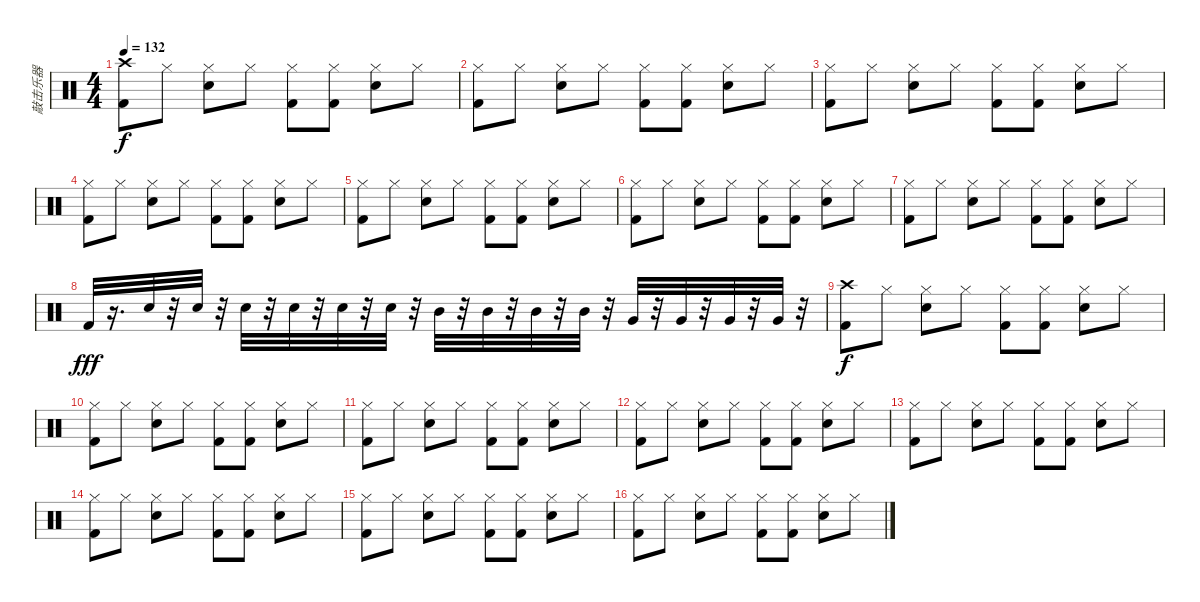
\track ("敲击乐器" "敲击乐器") {instrument percussion}
\staff {score}
\articulation defaults
\ts (4 4)
\tempo 132
\clef neutral
\ks c
("Crash high (hit)" "Kick (hit) 2").8{dy f} "Hi-Hat (closed)".8 ("Hi-Hat (closed)" "Snare (hit) 2").8 "Hi-Hat (closed)".8 ("Hi-Hat (closed)" "Kick (hit) 2").8 ("Hi-Hat (closed)" "Kick (hit) 2").8 ("Hi-Hat (closed)" "Snare (hit) 2").8 "Hi-Hat (closed)".8 |
("Hi-Hat (closed)" "Kick (hit) 2").8 "Hi-Hat (closed)".8 ("Hi-Hat (closed)" "Snare (hit) 2").8 "Hi-Hat (closed)".8 ("Hi-Hat (closed)" "Kick (hit) 2").8 ("Hi-Hat (closed)" "Kick (hit) 2").8 ("Hi-Hat (closed)" "Snare (hit) 2").8 "Hi-Hat (closed)".8 |
("Hi-Hat (closed)" "Kick (hit) 2").8 "Hi-Hat (closed)".8 ("Hi-Hat (closed)" "Snare (hit) 2").8 "Hi-Hat (closed)".8 ("Hi-Hat (closed)" "Kick (hit) 2").8 ("Hi-Hat (closed)" "Kick (hit) 2").8 ("Hi-Hat (closed)" "Snare (hit) 2").8 "Hi-Hat (closed)".8 |
("Hi-Hat (closed)" "Kick (hit) 2").8 "Hi-Hat (closed)".8 ("Hi-Hat (closed)" "Snare (hit) 2").8 "Hi-Hat (closed)".8 ("Hi-Hat (closed)" "Kick (hit) 2").8 ("Hi-Hat (closed)" "Kick (hit) 2").8 ("Hi-Hat (closed)" "Snare (hit) 2").8 "Hi-Hat (closed)".8 |
("Hi-Hat (closed)" "Kick (hit) 2").8 "Hi-Hat (closed)".8 ("Hi-Hat (closed)" "Snare (hit) 2").8 "Hi-Hat (closed)".8 ("Hi-Hat (closed)" "Kick (hit) 2").8 ("Hi-Hat (closed)" "Kick (hit) 2").8 ("Hi-Hat (closed)" "Snare (hit) 2").8 "Hi-Hat (closed)".8 |
("Hi-Hat (closed)" "Kick (hit) 2").8 "Hi-Hat (closed)".8 ("Hi-Hat (closed)" "Snare (hit) 2").8 "Hi-Hat (closed)".8 ("Hi-Hat (closed)" "Kick (hit) 2").8 ("Hi-Hat (closed)" "Kick (hit) 2").8 ("Hi-Hat (closed)" "Snare (hit) 2").8 "Hi-Hat (closed)".8 |
("Hi-Hat (closed)" "Kick (hit) 2").8 "Hi-Hat (closed)".8 ("Hi-Hat (closed)" "Snare (hit) 2").8 "Hi-Hat (closed)".8 ("Hi-Hat (closed)" "Kick (hit) 2").8 ("Hi-Hat (closed)" "Kick (hit) 2").8 ("Hi-Hat (closed)" "Snare (hit) 2").8 "Hi-Hat (closed)".8 |
"Kick (hit) 2".32{dy fff} r.16{d} "Snare (hit) 2".32 r.32 "Electric Snare (hit)".32 r.32 "Snare (hit) 2".32 r.32 "Electric Snare (hit)".32 r.32 "Snare (hit) 2".32 r.32 "Electric Snare (hit)".32 r.32 "Mid Tom (hit)".32 r.32 "Mid Tom (hit)".32 r.32 "Mid Tom (hit)".32 r.32 "Mid Tom (hit)".32 r.32 "Very Low Tom (hit)".32 r.32 "Very Low Tom (hit)".32 r.32 "Very Low Tom (hit)".32 r.32 "Very Low Tom (hit)".32 r.32 |
("Crash high (hit)" "Kick (hit) 2").8{dy f} "Hi-Hat (closed)".8 ("Hi-Hat (closed)" "Snare (hit) 2").8 "Hi-Hat (closed)".8 ("Hi-Hat (closed)" "Kick (hit) 2").8 ("Hi-Hat (closed)" "Kick (hit) 2").8 ("Hi-Hat (closed)" "Snare (hit) 2").8 "Hi-Hat (closed)".8 |
("Hi-Hat (closed)" "Kick (hit) 2").8 "Hi-Hat (closed)".8 ("Hi-Hat (closed)" "Snare (hit) 2").8 "Hi-Hat (closed)".8 ("Hi-Hat (closed)" "Kick (hit) 2").8 ("Hi-Hat (closed)" "Kick (hit) 2").8 ("Hi-Hat (closed)" "Snare (hit) 2").8 "Hi-Hat (closed)".8 |
("Hi-Hat (closed)" "Kick (hit) 2").8 "Hi-Hat (closed)".8 ("Hi-Hat (closed)" "Snare (hit) 2").8 "Hi-Hat (closed)".8 ("Hi-Hat (closed)" "Kick (hit) 2").8 ("Hi-Hat (closed)" "Kick (hit) 2").8 ("Hi-Hat (closed)" "Snare (hit) 2").8 "Hi-Hat (closed)".8 |
("Hi-Hat (closed)" "Kick (hit) 2").8 "Hi-Hat (closed)".8 ("Hi-Hat (closed)" "Snare (hit) 2").8 "Hi-Hat (closed)".8 ("Hi-Hat (closed)" "Kick (hit) 2").8 ("Hi-Hat (closed)" "Kick (hit) 2").8 ("Hi-Hat (closed)" "Snare (hit) 2").8 "Hi-Hat (closed)".8 |
("Hi-Hat (closed)" "Kick (hit) 2").8 "Hi-Hat (closed)".8 ("Hi-Hat (closed)" "Snare (hit) 2").8 "Hi-Hat (closed)".8 ("Hi-Hat (closed)" "Kick (hit) 2").8 ("Hi-Hat (closed)" "Kick (hit) 2").8 ("Hi-Hat (closed)" "Snare (hit) 2").8 "Hi-Hat (closed)".8 |
("Hi-Hat (closed)" "Kick (hit) 2").8 "Hi-Hat (closed)".8 ("Hi-Hat (closed)" "Snare (hit) 2").8 "Hi-Hat (closed)".8 ("Hi-Hat (closed)" "Kick (hit) 2").8 ("Hi-Hat (closed)" "Kick (hit) 2").8 ("Hi-Hat (closed)" "Snare (hit) 2").8 "Hi-Hat (closed)".8 |
("Hi-Hat (closed)" "Kick (hit) 2").8 "Hi-Hat (closed)".8 ("Hi-Hat (closed)" "Snare (hit) 2").8 "Hi-Hat (closed)".8 ("Hi-Hat (closed)" "Kick (hit) 2").8 ("Hi-Hat (closed)" "Kick (hit) 2").8 ("Hi-Hat (closed)" "Snare (hit) 2").8 "Hi-Hat (closed)".8 |
("Hi-Hat (closed)" "Kick (hit) 2").8 "Hi-Hat (closed)".8 ("Hi-Hat (closed)" "Snare (hit) 2").8 "Hi-Hat (closed)".8 ("Hi-Hat (closed)" "Kick (hit) 2").8 ("Hi-Hat (closed)" "Kick (hit) 2").8 ("Hi-Hat (closed)" "Snare (hit) 2").8 "Hi-Hat (closed)".8
